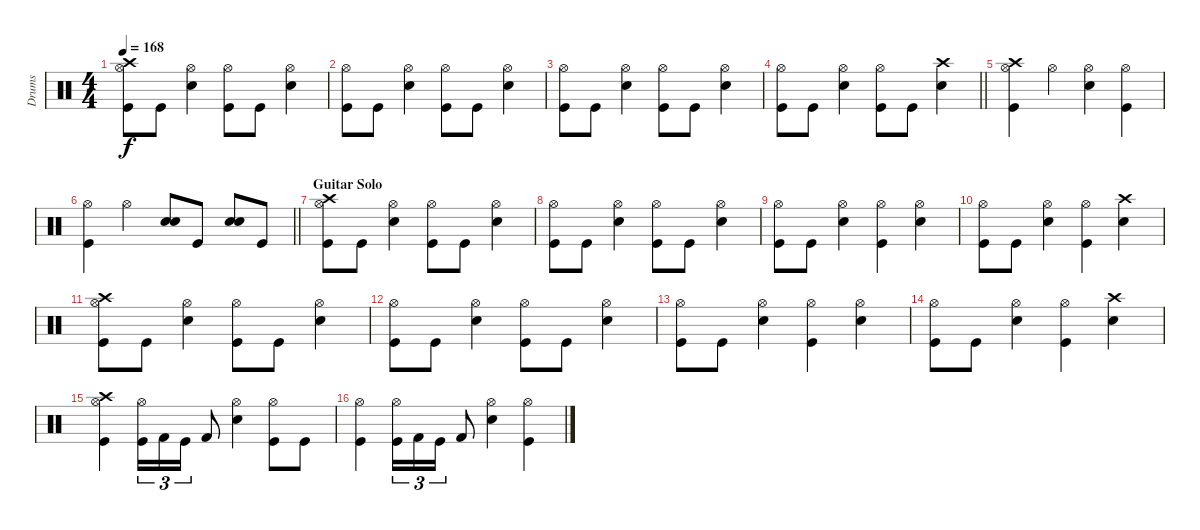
\track ("Drums" "Drums") {instrument percussion}
\staff {score}
\articulation defaults
\ts (4 4)
\tempo 168
\clef neutral
\ks c
("Crash high (hit)" "Hi-Hat (open)" "Kick (hit)").8{dy f} "Kick (hit)".8 ("Hi-Hat (open)" "Snare (hit) 2").4 ("Hi-Hat (open)" "Kick (hit)").8 "Kick (hit)".8 ("Hi-Hat (open)" "Snare (hit) 2").4 |
("Hi-Hat (open)" "Kick (hit)").8 "Kick (hit)".8 ("Hi-Hat (open)" "Snare (hit) 2").4 ("Hi-Hat (open)" "Kick (hit)").8 "Kick (hit)".8 ("Hi-Hat (open)" "Snare (hit) 2").4 |
("Hi-Hat (open)" "Kick (hit)").8 "Kick (hit)".8 ("Hi-Hat (open)" "Snare (hit) 2").4 ("Hi-Hat (open)" "Kick (hit)").8 "Kick (hit)".8 ("Hi-Hat (open)" "Snare (hit) 2").4 |
\barLineRight lightlight
("Hi-Hat (open)" "Kick (hit)").8 "Kick (hit)".8 ("Hi-Hat (open)" "Snare (hit) 2").4 ("Hi-Hat (open)" "Kick (hit)").8 "Kick (hit)".8 ("Crash high (hit)" "Snare (hit) 2").4 |
("Crash high (hit)" "Hi-Hat (open)" "Kick (hit)").4 "Hi-Hat (open)".4 ("Hi-Hat (open)" "Snare (hit) 2").4 ("Hi-Hat (open)" "Kick (hit)").4 |
\barLineRight lightlight
("Hi-Hat (open)" "Kick (hit)").4 "Hi-Hat (open)".4 ("Snare (hit) 2" "Snare (hit) 2").8{bd 120} "Kick (hit)".8 ("Snare (hit) 2" "Snare (hit) 2").8{bd 120} "Kick (hit)".8 |
\section ("" "Guitar Solo ")
("Crash high (hit)" "Hi-Hat (open)" "Kick (hit)").8 "Kick (hit)".8 ("Hi-Hat (open)" "Snare (hit) 2").4 ("Hi-Hat (open)" "Kick (hit)").8 "Kick (hit)".8 ("Hi-Hat (open)" "Snare (hit) 2").4 |
("Hi-Hat (open)" "Kick (hit)").8 "Kick (hit)".8 ("Hi-Hat (open)" "Snare (hit) 2").4 ("Hi-Hat (open)" "Kick (hit)").8 "Kick (hit)".8 ("Hi-Hat (open)" "Snare (hit) 2").4 |
("Hi-Hat (open)" "Kick (hit)").8 "Kick (hit)".8 ("Hi-Hat (open)" "Snare (hit) 2").4 ("Hi-Hat (open)" "Kick (hit)").4 ("Hi-Hat (open)" "Snare (hit) 2").4 |
("Hi-Hat (open)" "Kick (hit)").8 "Kick (hit)".8 ("Hi-Hat (open)" "Snare (hit) 2").4 ("Hi-Hat (open)" "Kick (hit)").4 ("Crash high (hit)" "Snare (hit) 2").4 |
("Crash high (hit)" "Hi-Hat (open)" "Kick (hit)").8 "Kick (hit)".8 ("Hi-Hat (open)" "Snare (hit) 2").4 ("Hi-Hat (open)" "Kick (hit)").8 "Kick (hit)".8 ("Hi-Hat (open)" "Snare (hit) 2").4 |
("Hi-Hat (open)" "Kick (hit)").8 "Kick (hit)".8 ("Hi-Hat (open)" "Snare (hit) 2").4 ("Hi-Hat (open)" "Kick (hit)").8 "Kick (hit)".8 ("Hi-Hat (open)" "Snare (hit) 2").4 |
("Hi-Hat (open)" "Kick (hit)").8 "Kick (hit)".8 ("Hi-Hat (open)" "Snare (hit) 2").4 ("Hi-Hat (open)" "Kick (hit)").4 ("Hi-Hat (open)" "Snare (hit) 2").4 |
("Hi-Hat (open)" "Kick (hit)").8 "Kick (hit)".8 ("Hi-Hat (open)" "Snare (hit) 2").4 ("Hi-Hat (open)" "Kick (hit)").4 ("Crash high (hit)" "Snare (hit) 2").4 |
("Crash high (hit)" "Hi-Hat (open)" "Kick (hit)").4 ("Hi-Hat (open)" "Kick (hit)").16{tu (3 2)} "Kick (hit) 2".16{tu (3 2)} "Kick (hit)".16{tu (3 2)} "Kick (hit) 2".8 ("Hi-Hat (open)" "Snare (hit) 2").4 ("Hi-Hat (open)" "Kick (hit)").8 "Kick (hit)".8 |
("Hi-Hat (open)" "Kick (hit)").4 ("Hi-Hat (open)" "Kick (hit)").16{tu (3 2)} "Kick (hit) 2".16{tu (3 2)} "Kick (hit)".16{tu (3 2)} "Kick (hit) 2".8 ("Hi-Hat (open)" "Snare (hit) 2").4 ("Hi-Hat (open)" "Kick (hit)").4
